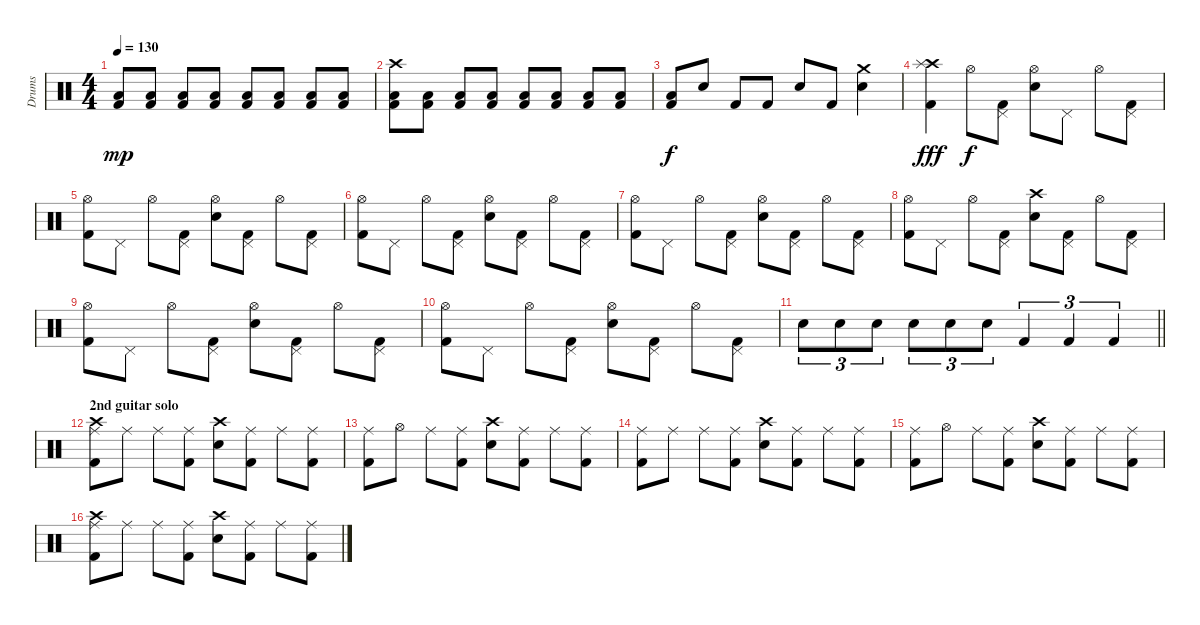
\track ("Drums" "Drums") {instrument percussion}
\staff {score}
\articulation defaults
\ts (4 4)
\tempo 130
\clef neutral
\ks c
("Low Tom (hit)" "Kick (hit) 2").8{dy mp} ("Low Tom (hit)" "Kick (hit) 2").8 ("Low Tom (hit)" "Kick (hit) 2").8 ("Low Tom (hit)" "Kick (hit) 2").8 ("Low Tom (hit)" "Kick (hit) 2").8 ("Low Tom (hit)" "Kick (hit) 2").8 ("Low Tom (hit)" "Kick (hit) 2").8 ("Low Tom (hit)" "Kick (hit) 2").8 |
("Crash high (hit)" "Low Tom (hit)" "Kick (hit) 2").8 ("Low Tom (hit)" "Kick (hit) 2").8 ("Low Tom (hit)" "Kick (hit) 2").8 ("Low Tom (hit)" "Kick (hit) 2").8 ("Low Tom (hit)" "Kick (hit) 2").8 ("Low Tom (hit)" "Kick (hit) 2").8 ("Low Tom (hit)" "Kick (hit) 2").8 ("Low Tom (hit)" "Kick (hit) 2").8 |
("Low Tom (hit)" "Kick (hit) 2").8{dy f} "Snare (hit) 2".8 "Kick (hit) 2".8 "Kick (hit) 2".8 "Snare (hit) 2".8 "Kick (hit) 2".8 ("Crash medium (hit)" "Snare (hit) 2").4 |
("Crash high (hit)" "Splash (hit)" "Kick (hit) 2").4{dy fff} "Hi-Hat (open)".8{dy f} ("Pedal Hi-Hat (hit)" "Kick (hit) 2").8 ("Snare (hit) 2" "Hi-Hat (open)").8 "Pedal Hi-Hat (hit)".8 "Hi-Hat (open)".8 ("Pedal Hi-Hat (hit)" "Kick (hit) 2").8 |
("Hi-Hat (open)" "Kick (hit) 2").8 "Pedal Hi-Hat (hit)".8 "Hi-Hat (open)".8 ("Pedal Hi-Hat (hit)" "Kick (hit) 2").8 ("Snare (hit) 2" "Hi-Hat (open)").8 ("Pedal Hi-Hat (hit)" "Kick (hit) 2").8 "Hi-Hat (open)".8 ("Pedal Hi-Hat (hit)" "Kick (hit) 2").8 |
("Hi-Hat (open)" "Kick (hit) 2").8 "Pedal Hi-Hat (hit)".8 "Hi-Hat (open)".8 ("Pedal Hi-Hat (hit)" "Kick (hit) 2").8 ("Snare (hit) 2" "Hi-Hat (open)").8 ("Pedal Hi-Hat (hit)" "Kick (hit) 2").8 "Hi-Hat (open)".8 ("Pedal Hi-Hat (hit)" "Kick (hit) 2").8 |
("Hi-Hat (open)" "Kick (hit) 2").8 "Pedal Hi-Hat (hit)".8 "Hi-Hat (open)".8 ("Pedal Hi-Hat (hit)" "Kick (hit) 2").8 ("Snare (hit) 2" "Hi-Hat (open)").8 ("Pedal Hi-Hat (hit)" "Kick (hit) 2").8 "Hi-Hat (open)".8 ("Pedal Hi-Hat (hit)" "Kick (hit) 2").8 |
("Hi-Hat (open)" "Kick (hit) 2").8 "Pedal Hi-Hat (hit)".8 "Hi-Hat (open)".8 ("Pedal Hi-Hat (hit)" "Kick (hit) 2").8 ("Crash high (hit)" "Snare (hit) 2").8 ("Pedal Hi-Hat (hit)" "Kick (hit) 2").8 "Hi-Hat (open)".8 ("Pedal Hi-Hat (hit)" "Kick (hit) 2").8 |
("Hi-Hat (open)" "Kick (hit) 2").8 "Pedal Hi-Hat (hit)".8 "Hi-Hat (open)".8 ("Pedal Hi-Hat (hit)" "Kick (hit) 2").8 ("Snare (hit) 2" "Hi-Hat (open)").8 ("Pedal Hi-Hat (hit)" "Kick (hit) 2").8 "Hi-Hat (open)".8 ("Pedal Hi-Hat (hit)" "Kick (hit) 2").8 |
("Hi-Hat (open)" "Kick (hit) 2").8 "Pedal Hi-Hat (hit)".8 "Hi-Hat (open)".8 ("Pedal Hi-Hat (hit)" "Kick (hit) 2").8 ("Snare (hit) 2" "Hi-Hat (open)").8 ("Pedal Hi-Hat (hit)" "Kick (hit) 2").8 "Hi-Hat (open)".8 ("Pedal Hi-Hat (hit)" "Kick (hit) 2").8 |
\barLineRight lightlight "Snare (hit) 2".8{tu (3 2)} "Snare (hit) 2".8{tu (3 2)} "Snare (hit) 2".8{tu (3 2)} "Snare (hit) 2".8{tu (3 2)} "Snare (hit) 2".8{tu (3 2)} "Snare (hit) 2".8{tu (3 2)} "Kick (hit) 2".4{tu (3 2)} "Kick (hit) 2".4{tu (3 2)} "Kick (hit) 2".4{tu (3 2)}
|
\section ("" "2nd guitar solo")
("Crash high (hit)" "Ride (middle)" "Kick (hit) 2").8 "Ride (middle)".8 "Ride (middle)".8 ("Ride (middle)" "Kick (hit) 2").8 ("Crash high (hit)" "Snare (hit) 2").8 ("Ride (middle)" "Kick (hit) 2").8 "Ride (middle)".8 ("Ride (middle)" "Kick (hit) 2").8 |
("Ride (middle)" "Kick (hit) 2").8 "Hi-Hat (open)".8 "Ride (middle)".8 ("Ride (middle)" "Kick (hit) 2").8 ("Crash high (hit)" "Snare (hit) 2").8 ("Ride (middle)" "Kick (hit) 2").8 "Ride (middle)".8 ("Ride (middle)" "Kick (hit) 2").8 |
("Ride (middle)" "Kick (hit) 2").8 "Ride (middle)".8 "Ride (middle)".8 ("Ride (middle)" "Kick (hit) 2").8 ("Crash high (hit)" "Snare (hit) 2").8 ("Ride (middle)" "Kick (hit) 2").8 "Ride (middle)".8 ("Ride (middle)" "Kick (hit) 2").8 |
("Ride (middle)" "Kick (hit) 2").8 "Hi-Hat (open)".8 "Ride (middle)".8 ("Ride (middle)" "Kick (hit) 2").8 ("Crash high (hit)" "Snare (hit) 2").8 ("Ride (middle)" "Kick (hit) 2").8 "Ride (middle)".8 ("Ride (middle)" "Kick (hit) 2").8 |
("Crash high (hit)" "Ride (middle)" "Kick (hit) 2").8 "Ride (middle)".8 "Ride (middle)".8 ("Ride (middle)" "Kick (hit) 2").8 ("Crash high (hit)" "Snare (hit) 2").8 ("Ride (middle)" "Kick (hit) 2").8 "Ride (middle)".8 ("Ride (middle)" "Kick (hit) 2").8
